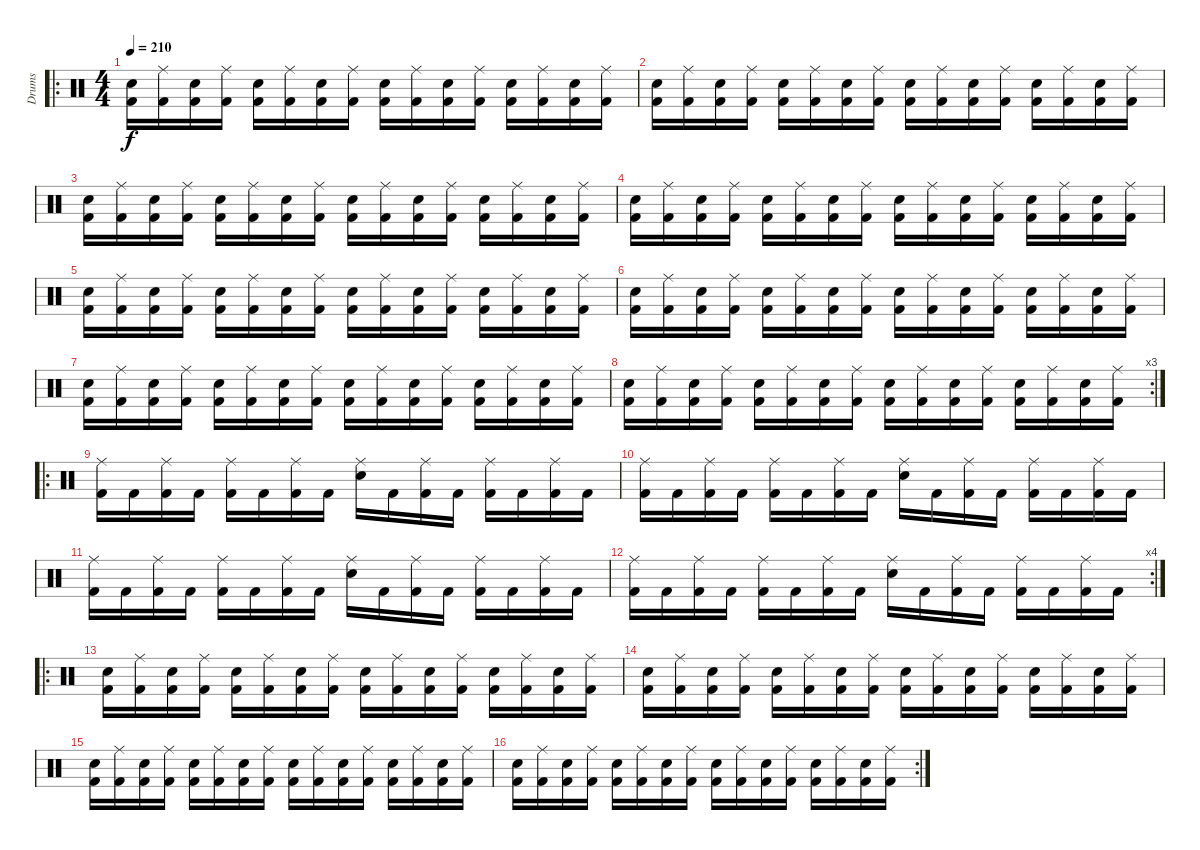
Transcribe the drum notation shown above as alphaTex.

\track ("Drums" "Drums") {instrument percussion}
\staff {score}
\articulation defaults
\ro
\ts (4 4)
\tempo 210
\clef neutral
\ks c
("Electric Snare (hit)" "Kick (hit) 2").16{dy f} ("Ride (middle)" "Kick (hit) 2").16 ("Electric Snare (hit)" "Kick (hit) 2").16 ("Ride (middle)" "Kick (hit) 2").16 ("Electric Snare (hit)" "Kick (hit) 2").16 ("Ride (middle)" "Kick (hit) 2").16 ("Electric Snare (hit)" "Kick (hit) 2").16 ("Ride (middle)" "Kick (hit) 2").16 ("Electric Snare (hit)" "Kick (hit) 2").16 ("Ride (middle)" "Kick (hit) 2").16 ("Electric Snare (hit)" "Kick (hit) 2").16 ("Ride (middle)" "Kick (hit) 2").16 ("Electric Snare (hit)" "Kick (hit) 2").16 ("Ride (middle)" "Kick (hit) 2").16 ("Electric Snare (hit)" "Kick (hit) 2").16 ("Ride (middle)" "Kick (hit) 2").16 |
("Electric Snare (hit)" "Kick (hit) 2").16 ("Ride (middle)" "Kick (hit) 2").16 ("Electric Snare (hit)" "Kick (hit) 2").16 ("Ride (middle)" "Kick (hit) 2").16 ("Electric Snare (hit)" "Kick (hit) 2").16 ("Ride (middle)" "Kick (hit) 2").16 ("Electric Snare (hit)" "Kick (hit) 2").16 ("Ride (middle)" "Kick (hit) 2").16 ("Electric Snare (hit)" "Kick (hit) 2").16 ("Ride (middle)" "Kick (hit) 2").16 ("Electric Snare (hit)" "Kick (hit) 2").16 ("Ride (middle)" "Kick (hit) 2").16 ("Electric Snare (hit)" "Kick (hit) 2").16 ("Ride (middle)" "Kick (hit) 2").16 ("Electric Snare (hit)" "Kick (hit) 2").16 ("Ride (middle)" "Kick (hit) 2").16 |
("Electric Snare (hit)" "Kick (hit) 2").16 ("Ride (middle)" "Kick (hit) 2").16 ("Electric Snare (hit)" "Kick (hit) 2").16 ("Ride (middle)" "Kick (hit) 2").16 ("Electric Snare (hit)" "Kick (hit) 2").16 ("Ride (middle)" "Kick (hit) 2").16 ("Electric Snare (hit)" "Kick (hit) 2").16 ("Ride (middle)" "Kick (hit) 2").16 ("Electric Snare (hit)" "Kick (hit) 2").16 ("Ride (middle)" "Kick (hit) 2").16 ("Electric Snare (hit)" "Kick (hit) 2").16 ("Ride (middle)" "Kick (hit) 2").16 ("Electric Snare (hit)" "Kick (hit) 2").16 ("Ride (middle)" "Kick (hit) 2").16 ("Electric Snare (hit)" "Kick (hit) 2").16 ("Ride (middle)" "Kick (hit) 2").16 |
("Electric Snare (hit)" "Kick (hit) 2").16 ("Ride (middle)" "Kick (hit) 2").16 ("Electric Snare (hit)" "Kick (hit) 2").16 ("Ride (middle)" "Kick (hit) 2").16 ("Electric Snare (hit)" "Kick (hit) 2").16 ("Ride (middle)" "Kick (hit) 2").16 ("Electric Snare (hit)" "Kick (hit) 2").16 ("Ride (middle)" "Kick (hit) 2").16 ("Electric Snare (hit)" "Kick (hit) 2").16 ("Ride (middle)" "Kick (hit) 2").16 ("Electric Snare (hit)" "Kick (hit) 2").16 ("Ride (middle)" "Kick (hit) 2").16 ("Electric Snare (hit)" "Kick (hit) 2").16 ("Ride (middle)" "Kick (hit) 2").16 ("Electric Snare (hit)" "Kick (hit) 2").16 ("Ride (middle)" "Kick (hit) 2").16 |
("Electric Snare (hit)" "Kick (hit) 2").16 ("Ride (middle)" "Kick (hit) 2").16 ("Electric Snare (hit)" "Kick (hit) 2").16 ("Ride (middle)" "Kick (hit) 2").16 ("Electric Snare (hit)" "Kick (hit) 2").16 ("Ride (middle)" "Kick (hit) 2").16 ("Electric Snare (hit)" "Kick (hit) 2").16 ("Ride (middle)" "Kick (hit) 2").16 ("Electric Snare (hit)" "Kick (hit) 2").16 ("Ride (middle)" "Kick (hit) 2").16 ("Electric Snare (hit)" "Kick (hit) 2").16 ("Ride (middle)" "Kick (hit) 2").16 ("Electric Snare (hit)" "Kick (hit) 2").16 ("Ride (middle)" "Kick (hit) 2").16 ("Electric Snare (hit)" "Kick (hit) 2").16 ("Ride (middle)" "Kick (hit) 2").16 |
("Electric Snare (hit)" "Kick (hit) 2").16 ("Ride (middle)" "Kick (hit) 2").16 ("Electric Snare (hit)" "Kick (hit) 2").16 ("Ride (middle)" "Kick (hit) 2").16 ("Electric Snare (hit)" "Kick (hit) 2").16 ("Ride (middle)" "Kick (hit) 2").16 ("Electric Snare (hit)" "Kick (hit) 2").16 ("Ride (middle)" "Kick (hit) 2").16 ("Electric Snare (hit)" "Kick (hit) 2").16 ("Ride (middle)" "Kick (hit) 2").16 ("Electric Snare (hit)" "Kick (hit) 2").16 ("Ride (middle)" "Kick (hit) 2").16 ("Electric Snare (hit)" "Kick (hit) 2").16 ("Ride (middle)" "Kick (hit) 2").16 ("Electric Snare (hit)" "Kick (hit) 2").16 ("Ride (middle)" "Kick (hit) 2").16 |
("Electric Snare (hit)" "Kick (hit) 2").16 ("Ride (middle)" "Kick (hit) 2").16 ("Electric Snare (hit)" "Kick (hit) 2").16 ("Ride (middle)" "Kick (hit) 2").16 ("Electric Snare (hit)" "Kick (hit) 2").16 ("Ride (middle)" "Kick (hit) 2").16 ("Electric Snare (hit)" "Kick (hit) 2").16 ("Ride (middle)" "Kick (hit) 2").16 ("Electric Snare (hit)" "Kick (hit) 2").16 ("Ride (middle)" "Kick (hit) 2").16 ("Electric Snare (hit)" "Kick (hit) 2").16 ("Ride (middle)" "Kick (hit) 2").16 ("Electric Snare (hit)" "Kick (hit) 2").16 ("Ride (middle)" "Kick (hit) 2").16 ("Electric Snare (hit)" "Kick (hit) 2").16 ("Ride (middle)" "Kick (hit) 2").16 |
\rc 3
("Electric Snare (hit)" "Kick (hit) 2").16 ("Ride (middle)" "Kick (hit) 2").16 ("Electric Snare (hit)" "Kick (hit) 2").16 ("Ride (middle)" "Kick (hit) 2").16 ("Electric Snare (hit)" "Kick (hit) 2").16 ("Ride (middle)" "Kick (hit) 2").16 ("Electric Snare (hit)" "Kick (hit) 2").16 ("Ride (middle)" "Kick (hit) 2").16 ("Electric Snare (hit)" "Kick (hit) 2").16 ("Ride (middle)" "Kick (hit) 2").16 ("Electric Snare (hit)" "Kick (hit) 2").16 ("Ride (middle)" "Kick (hit) 2").16 ("Electric Snare (hit)" "Kick (hit) 2").16 ("Ride (middle)" "Kick (hit) 2").16 ("Electric Snare (hit)" "Kick (hit) 2").16 ("Ride (middle)" "Kick (hit) 2").16 |
\ro
("Ride (middle)" "Kick (hit) 2").16 "Kick (hit) 2".16 ("Ride (middle)" "Kick (hit) 2").16 "Kick (hit) 2".16 ("Ride (middle)" "Kick (hit) 2").16 "Kick (hit) 2".16 ("Ride (middle)" "Kick (hit) 2").16 "Kick (hit) 2".16 ("Ride (middle)" "Electric Snare (hit)").16 "Kick (hit) 2".16 ("Ride (middle)" "Kick (hit) 2").16 "Kick (hit) 2".16 ("Ride (middle)" "Kick (hit) 2").16 "Kick (hit) 2".16 ("Ride (middle)" "Kick (hit) 2").16 "Kick (hit) 2".16 |
("Ride (middle)" "Kick (hit) 2").16 "Kick (hit) 2".16 ("Ride (middle)" "Kick (hit) 2").16 "Kick (hit) 2".16 ("Ride (middle)" "Kick (hit) 2").16 "Kick (hit) 2".16 ("Ride (middle)" "Kick (hit) 2").16 "Kick (hit) 2".16 ("Ride (middle)" "Electric Snare (hit)").16 "Kick (hit) 2".16 ("Ride (middle)" "Kick (hit) 2").16 "Kick (hit) 2".16 ("Ride (middle)" "Kick (hit) 2").16 "Kick (hit) 2".16 ("Ride (middle)" "Kick (hit) 2").16 "Kick (hit) 2".16 |
("Ride (middle)" "Kick (hit) 2").16 "Kick (hit) 2".16 ("Ride (middle)" "Kick (hit) 2").16 "Kick (hit) 2".16 ("Ride (middle)" "Kick (hit) 2").16 "Kick (hit) 2".16 ("Ride (middle)" "Kick (hit) 2").16 "Kick (hit) 2".16 ("Ride (middle)" "Electric Snare (hit)").16 "Kick (hit) 2".16 ("Ride (middle)" "Kick (hit) 2").16 "Kick (hit) 2".16 ("Ride (middle)" "Kick (hit) 2").16 "Kick (hit) 2".16 ("Ride (middle)" "Kick (hit) 2").16 "Kick (hit) 2".16 |
\rc 4
("Ride (middle)" "Kick (hit) 2").16 "Kick (hit) 2".16 ("Ride (middle)" "Kick (hit) 2").16 "Kick (hit) 2".16 ("Ride (middle)" "Kick (hit) 2").16 "Kick (hit) 2".16 ("Ride (middle)" "Kick (hit) 2").16 "Kick (hit) 2".16 ("Ride (middle)" "Electric Snare (hit)").16 "Kick (hit) 2".16 ("Ride (middle)" "Kick (hit) 2").16 "Kick (hit) 2".16 ("Ride (middle)" "Kick (hit) 2").16 "Kick (hit) 2".16 ("Ride (middle)" "Kick (hit) 2").16 "Kick (hit) 2".16 |
\ro
("Electric Snare (hit)" "Kick (hit) 2").16 ("Ride (middle)" "Kick (hit) 2").16 ("Electric Snare (hit)" "Kick (hit) 2").16 ("Ride (middle)" "Kick (hit) 2").16 ("Electric Snare (hit)" "Kick (hit) 2").16 ("Ride (middle)" "Kick (hit) 2").16 ("Electric Snare (hit)" "Kick (hit) 2").16 ("Ride (middle)" "Kick (hit) 2").16 ("Electric Snare (hit)" "Kick (hit) 2").16 ("Ride (middle)" "Kick (hit) 2").16 ("Electric Snare (hit)" "Kick (hit) 2").16 ("Ride (middle)" "Kick (hit) 2").16 ("Electric Snare (hit)" "Kick (hit) 2").16 ("Ride (middle)" "Kick (hit) 2").16 ("Electric Snare (hit)" "Kick (hit) 2").16 ("Ride (middle)" "Kick (hit) 2").16 |
("Electric Snare (hit)" "Kick (hit) 2").16 ("Ride (middle)" "Kick (hit) 2").16 ("Electric Snare (hit)" "Kick (hit) 2").16 ("Ride (middle)" "Kick (hit) 2").16 ("Electric Snare (hit)" "Kick (hit) 2").16 ("Ride (middle)" "Kick (hit) 2").16 ("Electric Snare (hit)" "Kick (hit) 2").16 ("Ride (middle)" "Kick (hit) 2").16 ("Electric Snare (hit)" "Kick (hit) 2").16 ("Ride (middle)" "Kick (hit) 2").16 ("Electric Snare (hit)" "Kick (hit) 2").16 ("Ride (middle)" "Kick (hit) 2").16 ("Electric Snare (hit)" "Kick (hit) 2").16 ("Ride (middle)" "Kick (hit) 2").16 ("Electric Snare (hit)" "Kick (hit) 2").16 ("Ride (middle)" "Kick (hit) 2").16 |
("Electric Snare (hit)" "Kick (hit) 2").16 ("Ride (middle)" "Kick (hit) 2").16 ("Electric Snare (hit)" "Kick (hit) 2").16 ("Ride (middle)" "Kick (hit) 2").16 ("Electric Snare (hit)" "Kick (hit) 2").16 ("Ride (middle)" "Kick (hit) 2").16 ("Electric Snare (hit)" "Kick (hit) 2").16 ("Ride (middle)" "Kick (hit) 2").16 ("Electric Snare (hit)" "Kick (hit) 2").16 ("Ride (middle)" "Kick (hit) 2").16 ("Electric Snare (hit)" "Kick (hit) 2").16 ("Ride (middle)" "Kick (hit) 2").16 ("Electric Snare (hit)" "Kick (hit) 2").16 ("Ride (middle)" "Kick (hit) 2").16 ("Electric Snare (hit)" "Kick (hit) 2").16 ("Ride (middle)" "Kick (hit) 2").16 |
\rc 2
("Electric Snare (hit)" "Kick (hit) 2").16 ("Ride (middle)" "Kick (hit) 2").16 ("Electric Snare (hit)" "Kick (hit) 2").16 ("Ride (middle)" "Kick (hit) 2").16 ("Electric Snare (hit)" "Kick (hit) 2").16 ("Ride (middle)" "Kick (hit) 2").16 ("Electric Snare (hit)" "Kick (hit) 2").16 ("Ride (middle)" "Kick (hit) 2").16 ("Electric Snare (hit)" "Kick (hit) 2").16 ("Ride (middle)" "Kick (hit) 2").16 ("Electric Snare (hit)" "Kick (hit) 2").16 ("Ride (middle)" "Kick (hit) 2").16 ("Electric Snare (hit)" "Kick (hit) 2").16 ("Ride (middle)" "Kick (hit) 2").16 ("Electric Snare (hit)" "Kick (hit) 2").16 ("Ride (middle)" "Kick (hit) 2").16
